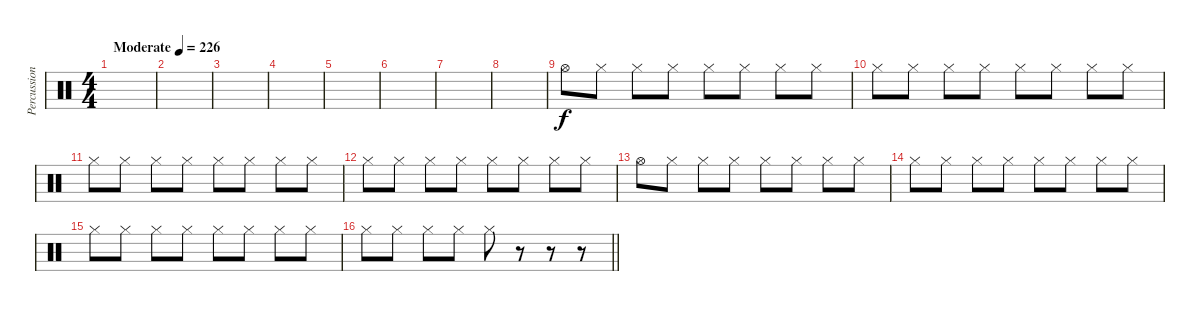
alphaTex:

\track ("Percussion" "Percussion") {instrument percussion}
\staff {score}
\articulation defaults
\ts (4 4)
\section ("" "")
\tempo (226 "Moderate")
\clef neutral
\ks c
|
|
|
|
|
|
|
|
"Hi-Hat (open)".8 "Hi-Hat (closed)".8 "Hi-Hat (closed)".8 "Hi-Hat (closed)".8 "Hi-Hat (closed)".8 "Hi-Hat (closed)".8 "Hi-Hat (closed)".8 "Hi-Hat (closed)".8 |
"Hi-Hat (closed)".8 "Hi-Hat (closed)".8 "Hi-Hat (closed)".8 "Hi-Hat (closed)".8 "Hi-Hat (closed)".8 "Hi-Hat (closed)".8 "Hi-Hat (closed)".8 "Hi-Hat (closed)".8 |
"Hi-Hat (closed)".8 "Hi-Hat (closed)".8 "Hi-Hat (closed)".8 "Hi-Hat (closed)".8 "Hi-Hat (closed)".8 "Hi-Hat (closed)".8 "Hi-Hat (closed)".8 "Hi-Hat (closed)".8 |
"Hi-Hat (closed)".8 "Hi-Hat (closed)".8 "Hi-Hat (closed)".8 "Hi-Hat (closed)".8 "Hi-Hat (closed)".8 "Hi-Hat (closed)".8 "Hi-Hat (closed)".8 "Hi-Hat (closed)".8 |
"Hi-Hat (open)".8 "Hi-Hat (closed)".8 "Hi-Hat (closed)".8 "Hi-Hat (closed)".8 "Hi-Hat (closed)".8 "Hi-Hat (closed)".8 "Hi-Hat (closed)".8 "Hi-Hat (closed)".8 |
"Hi-Hat (closed)".8 "Hi-Hat (closed)".8 "Hi-Hat (closed)".8 "Hi-Hat (closed)".8 "Hi-Hat (closed)".8 "Hi-Hat (closed)".8 "Hi-Hat (closed)".8 "Hi-Hat (closed)".8 |
"Hi-Hat (closed)".8 "Hi-Hat (closed)".8 "Hi-Hat (closed)".8 "Hi-Hat (closed)".8 "Hi-Hat (closed)".8 "Hi-Hat (closed)".8 "Hi-Hat (closed)".8 "Hi-Hat (closed)".8 |
\barLineRight lightlight "Hi-Hat (closed)".8 "Hi-Hat (closed)".8 "Hi-Hat (closed)".8 "Hi-Hat (closed)".8 "Hi-Hat (closed)".8
r.8 r.8 r.8
